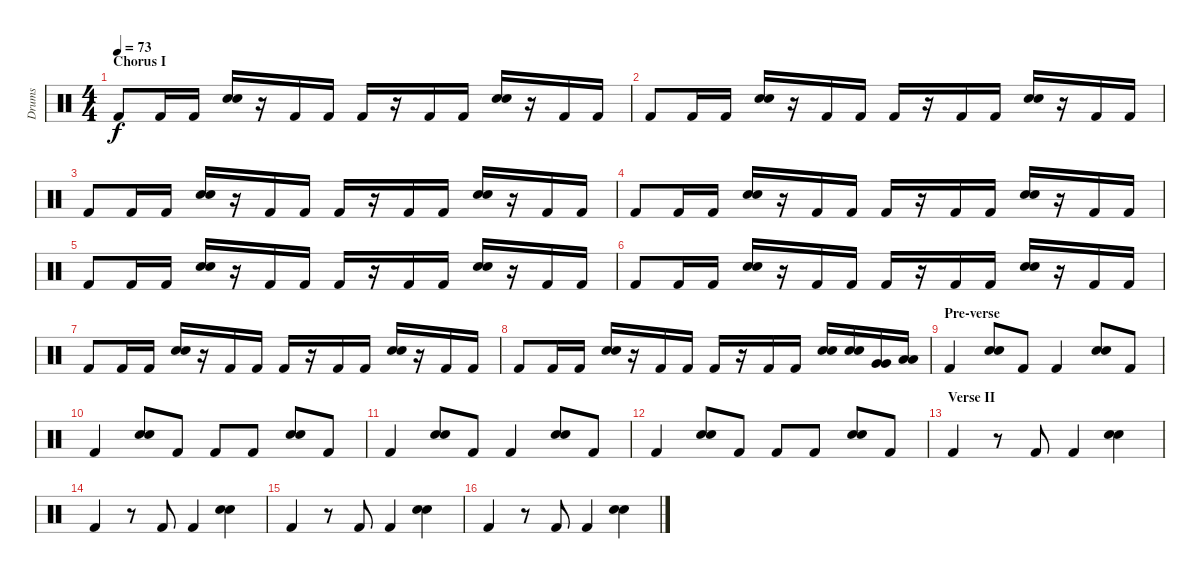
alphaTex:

\track ("Drums" "Drums") {instrument percussion}
\staff {score}
\articulation defaults
\ts (4 4)
\section ("" "Chorus I")
\tempo 73
\clef neutral
\ks c "Kick (hit) 2".8{dy f} "Kick (hit) 2".16 "Kick (hit) 2".16
("Electric Snare (hit)" "Snare (hit) 2").16 r.16 "Kick (hit) 2".16 "Kick (hit) 2".16 "Kick (hit) 2".16 r.16 "Kick (hit) 2".16 "Kick (hit) 2".16 ("Electric Snare (hit)" "Snare (hit) 2").16 r.16 "Kick (hit) 2".16 "Kick (hit) 2".16 |
"Kick (hit) 2".8 "Kick (hit) 2".16 "Kick (hit) 2".16 ("Electric Snare (hit)" "Snare (hit) 2").16 r.16 "Kick (hit) 2".16 "Kick (hit) 2".16 "Kick (hit) 2".16 r.16 "Kick (hit) 2".16 "Kick (hit) 2".16 ("Electric Snare (hit)" "Snare (hit) 2").16 r.16 "Kick (hit) 2".16 "Kick (hit) 2".16 |
"Kick (hit) 2".8 "Kick (hit) 2".16 "Kick (hit) 2".16 ("Electric Snare (hit)" "Snare (hit) 2").16 r.16 "Kick (hit) 2".16 "Kick (hit) 2".16 "Kick (hit) 2".16 r.16 "Kick (hit) 2".16 "Kick (hit) 2".16 ("Electric Snare (hit)" "Snare (hit) 2").16 r.16 "Kick (hit) 2".16 "Kick (hit) 2".16 |
"Kick (hit) 2".8 "Kick (hit) 2".16 "Kick (hit) 2".16 ("Electric Snare (hit)" "Snare (hit) 2").16 r.16 "Kick (hit) 2".16 "Kick (hit) 2".16 "Kick (hit) 2".16 r.16 "Kick (hit) 2".16 "Kick (hit) 2".16 ("Electric Snare (hit)" "Snare (hit) 2").16 r.16 "Kick (hit) 2".16 "Kick (hit) 2".16 |
"Kick (hit) 2".8 "Kick (hit) 2".16 "Kick (hit) 2".16 ("Electric Snare (hit)" "Snare (hit) 2").16 r.16 "Kick (hit) 2".16 "Kick (hit) 2".16 "Kick (hit) 2".16 r.16 "Kick (hit) 2".16 "Kick (hit) 2".16 ("Electric Snare (hit)" "Snare (hit) 2").16 r.16 "Kick (hit) 2".16 "Kick (hit) 2".16 |
"Kick (hit) 2".8 "Kick (hit) 2".16 "Kick (hit) 2".16 ("Electric Snare (hit)" "Snare (hit) 2").16 r.16 "Kick (hit) 2".16 "Kick (hit) 2".16 "Kick (hit) 2".16 r.16 "Kick (hit) 2".16 "Kick (hit) 2".16 ("Electric Snare (hit)" "Snare (hit) 2").16 r.16 "Kick (hit) 2".16 "Kick (hit) 2".16 |
"Kick (hit) 2".8 "Kick (hit) 2".16 "Kick (hit) 2".16 ("Electric Snare (hit)" "Snare (hit) 2").16 r.16 "Kick (hit) 2".16 "Kick (hit) 2".16 "Kick (hit) 2".16 r.16 "Kick (hit) 2".16 "Kick (hit) 2".16 ("Electric Snare (hit)" "Snare (hit) 2").16 r.16 "Kick (hit) 2".16 "Kick (hit) 2".16 |
"Kick (hit) 2".8 "Kick (hit) 2".16 "Kick (hit) 2".16 ("Electric Snare (hit)" "Snare (hit) 2").16 r.16 "Kick (hit) 2".16 "Kick (hit) 2".16 "Kick (hit) 2".16 r.16 "Kick (hit) 2".16 "Kick (hit) 2".16 ("Electric Snare (hit)" "Snare (hit) 2").16 ("Electric Snare (hit)" "Snare (hit) 2").16 ("Very Low Tom (hit)" "Very Low Tom (hit)").16 ("Low Floor Tom (hit)" "Low Floor Tom (hit)").16 |
\section ("" "Pre-verse")
"Kick (hit) 2".4 ("Electric Snare (hit)" "Snare (hit) 2").8 "Kick (hit) 2".8 "Kick (hit) 2".4 ("Electric Snare (hit)" "Snare (hit) 2").8 "Kick (hit) 2".8 |
"Kick (hit) 2".4 ("Electric Snare (hit)" "Snare (hit) 2").8 "Kick (hit) 2".8 "Kick (hit) 2".8 "Kick (hit) 2".8 ("Electric Snare (hit)" "Snare (hit) 2").8 "Kick (hit) 2".8 |
"Kick (hit) 2".4 ("Electric Snare (hit)" "Snare (hit) 2").8 "Kick (hit) 2".8 "Kick (hit) 2".4 ("Electric Snare (hit)" "Snare (hit) 2").8 "Kick (hit) 2".8 |
"Kick (hit) 2".4 ("Electric Snare (hit)" "Snare (hit) 2").8 "Kick (hit) 2".8 "Kick (hit) 2".8 "Kick (hit) 2".8 ("Electric Snare (hit)" "Snare (hit) 2").8 "Kick (hit) 2".8 |
\section ("" "Verse II")
"Kick (hit) 2".4 r.8 "Kick (hit) 2".8 "Kick (hit) 2".4 ("Electric Snare (hit)" "Snare (hit) 2").4 |
"Kick (hit) 2".4 r.8 "Kick (hit) 2".8 "Kick (hit) 2".4 ("Electric Snare (hit)" "Snare (hit) 2").4 |
"Kick (hit) 2".4 r.8 "Kick (hit) 2".8 "Kick (hit) 2".4 ("Electric Snare (hit)" "Snare (hit) 2").4 |
"Kick (hit) 2".4 r.8 "Kick (hit) 2".8 "Kick (hit) 2".4 ("Electric Snare (hit)" "Snare (hit) 2").4
